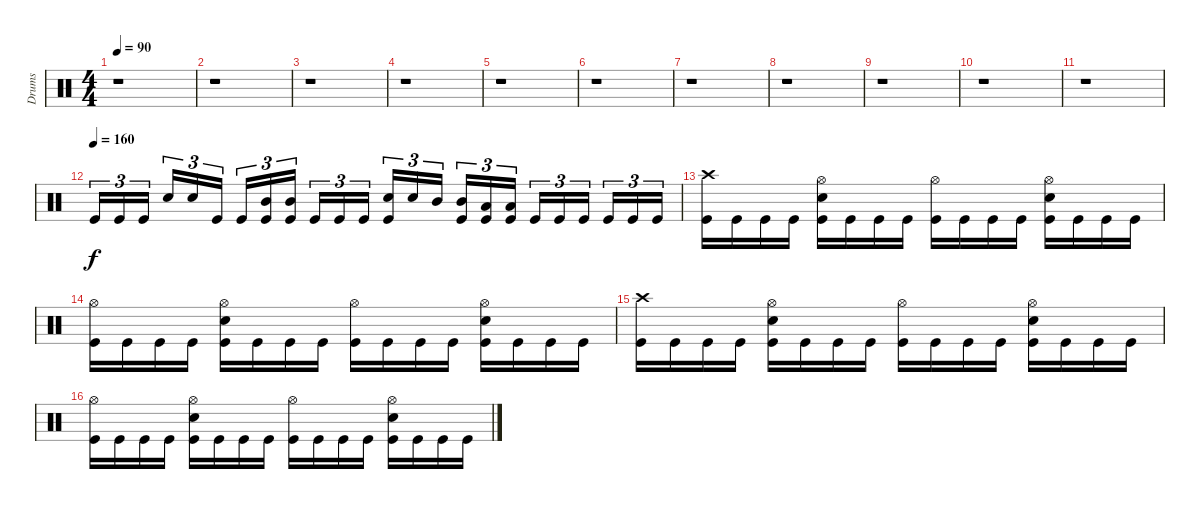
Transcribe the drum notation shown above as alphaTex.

\track ("Drums" "Drums") {instrument percussion}
\staff {score}
\articulation defaults
\ts (4 4)
\tempo 90
\clef neutral
\ks c
r.1{dy f} |
r.1 |
r.1 |
r.1 |
r.1 |
r.1 |
r.1 |
r.1 |
r.1 |
r.1 |
r.1 |
\tempo (160)
"Kick (hit)".16{tu (3 2)} "Kick (hit)".16{tu (3 2)} "Kick (hit)".16{tu (3 2)} "Snare (hit) 2".16{tu (3 2)} "Snare (hit) 2".16{tu (3 2)} "Kick (hit)".16{tu (3 2)} "Kick (hit)".16{tu (3 2)} ("Mid Tom (hit)" "Kick (hit)").16{tu (3 2)} ("Mid Tom (hit)" "Kick (hit)").16{tu (3 2)} "Kick (hit)".16{tu (3 2)} "Kick (hit)".16{tu (3 2)} "Kick (hit)".16{tu (3 2)} ("Snare (hit) 2" "Kick (hit)").16{tu (3 2)} "Snare (hit) 2".16{tu (3 2)} "Mid Tom (hit)".16{tu (3 2)} ("Mid Tom (hit)" "Kick (hit)").16{tu (3 2)} ("Low Tom (hit)" "Kick (hit)").16{tu (3 2)} ("Low Tom (hit)" "Kick (hit)").16{tu (3 2)} "Kick (hit)".16{tu (3 2)} "Kick (hit)".16{tu (3 2)} "Kick (hit)".16{tu (3 2)} "Kick (hit)".16{tu (3 2)} "Kick (hit)".16{tu (3 2)} "Kick (hit)".16{tu (3 2)} |
("Crash high (hit)" "Kick (hit)").16 "Kick (hit)".16 "Kick (hit)".16 "Kick (hit)".16 ("Hi-Hat (open)" "Snare (hit) 2" "Kick (hit)").16 "Kick (hit)".16 "Kick (hit)".16 "Kick (hit)".16 ("Hi-Hat (open)" "Kick (hit)").16 "Kick (hit)".16 "Kick (hit)".16 "Kick (hit)".16 ("Hi-Hat (open)" "Snare (hit) 2" "Kick (hit)").16 "Kick (hit)".16 "Kick (hit)".16 "Kick (hit)".16 |
("Hi-Hat (open)" "Kick (hit)").16 "Kick (hit)".16 "Kick (hit)".16 "Kick (hit)".16 ("Hi-Hat (open)" "Snare (hit) 2" "Kick (hit)").16 "Kick (hit)".16 "Kick (hit)".16 "Kick (hit)".16 ("Hi-Hat (open)" "Kick (hit)").16 "Kick (hit)".16 "Kick (hit)".16 "Kick (hit)".16 ("Hi-Hat (open)" "Snare (hit) 2" "Kick (hit)").16 "Kick (hit)".16 "Kick (hit)".16 "Kick (hit)".16 |
("Crash high (hit)" "Kick (hit)").16 "Kick (hit)".16 "Kick (hit)".16 "Kick (hit)".16 ("Hi-Hat (open)" "Snare (hit) 2" "Kick (hit)").16 "Kick (hit)".16 "Kick (hit)".16 "Kick (hit)".16 ("Hi-Hat (open)" "Kick (hit)").16 "Kick (hit)".16 "Kick (hit)".16 "Kick (hit)".16 ("Hi-Hat (open)" "Snare (hit) 2" "Kick (hit)").16 "Kick (hit)".16 "Kick (hit)".16 "Kick (hit)".16 |
("Hi-Hat (open)" "Kick (hit)").16 "Kick (hit)".16 "Kick (hit)".16 "Kick (hit)".16 ("Hi-Hat (open)" "Snare (hit) 2" "Kick (hit)").16 "Kick (hit)".16 "Kick (hit)".16 "Kick (hit)".16 ("Hi-Hat (open)" "Kick (hit)").16 "Kick (hit)".16 "Kick (hit)".16 "Kick (hit)".16 ("Hi-Hat (open)" "Snare (hit) 2" "Kick (hit)").16 "Kick (hit)".16 "Kick (hit)".16 "Kick (hit)".16
